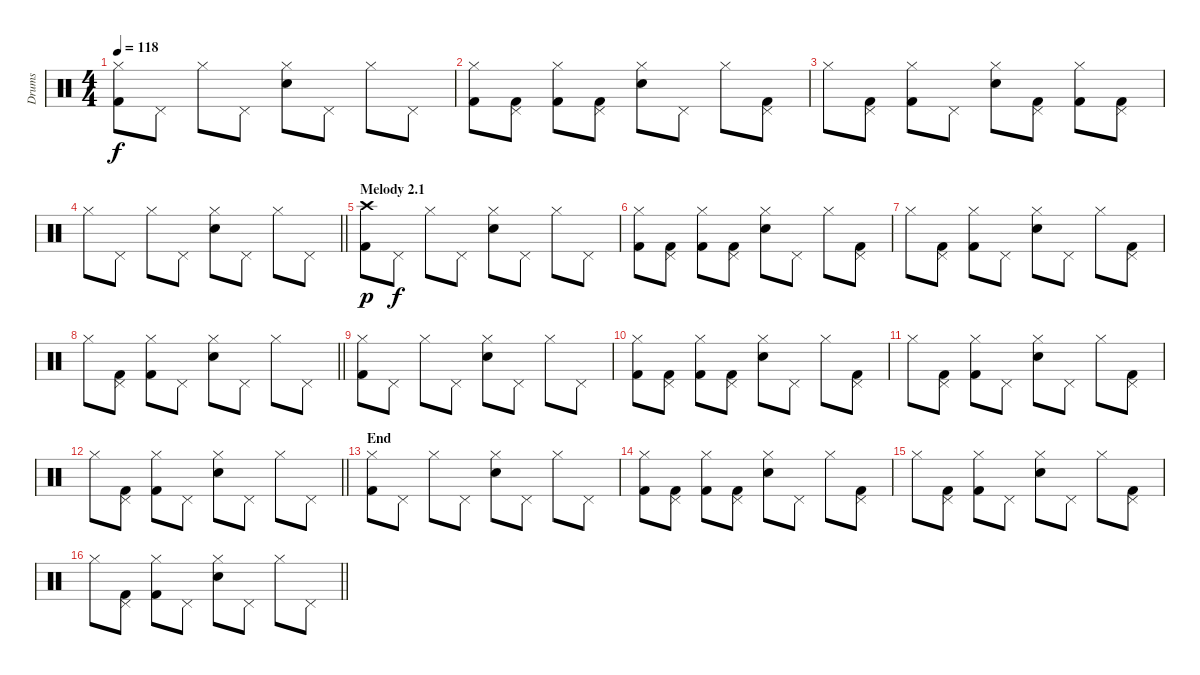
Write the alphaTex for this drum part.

\track ("Drums" "Drums") {instrument percussion}
\staff {score}
\articulation defaults
\ts (4 4)
\tempo 118
\clef neutral
\ks c
("Hi-Hat (closed)" "Kick (hit) 2").8{dy f} "Pedal Hi-Hat (hit)".8 "Hi-Hat (closed)".8 "Pedal Hi-Hat (hit)".8 ("Hi-Hat (closed)" "Electric Snare (hit)").8 "Pedal Hi-Hat (hit)".8 "Hi-Hat (closed)".8 "Pedal Hi-Hat (hit)".8 |
("Hi-Hat (closed)" "Kick (hit) 2").8 ("Pedal Hi-Hat (hit)" "Kick (hit) 2").8 ("Hi-Hat (closed)" "Kick (hit) 2").8 ("Pedal Hi-Hat (hit)" "Kick (hit) 2").8 ("Hi-Hat (closed)" "Electric Snare (hit)").8 "Pedal Hi-Hat (hit)".8 "Hi-Hat (closed)".8 ("Pedal Hi-Hat (hit)" "Kick (hit) 2").8 |
"Hi-Hat (closed)".8 ("Pedal Hi-Hat (hit)" "Kick (hit) 2").8 ("Hi-Hat (closed)" "Kick (hit) 2").8 "Pedal Hi-Hat (hit)".8 ("Hi-Hat (closed)" "Electric Snare (hit)").8 ("Pedal Hi-Hat (hit)" "Kick (hit) 2").8 ("Hi-Hat (closed)" "Kick (hit) 2").8 ("Pedal Hi-Hat (hit)" "Kick (hit) 2").8 |
\barLineRight lightlight "Hi-Hat (closed)".8 "Pedal Hi-Hat (hit)".8 "Hi-Hat (closed)".8 "Pedal Hi-Hat (hit)".8
("Hi-Hat (closed)" "Electric Snare (hit)").8 "Pedal Hi-Hat (hit)".8 "Hi-Hat (closed)".8 "Pedal Hi-Hat (hit)".8 |
\section ("" "Melody 2.1")
("Crash high (hit)" "Kick (hit) 2").8{dy p} "Pedal Hi-Hat (hit)".8{dy f} "Hi-Hat (closed)".8 "Pedal Hi-Hat (hit)".8 ("Hi-Hat (closed)" "Electric Snare (hit)").8 "Pedal Hi-Hat (hit)".8 "Hi-Hat (closed)".8 "Pedal Hi-Hat (hit)".8 |
("Hi-Hat (closed)" "Kick (hit) 2").8 ("Pedal Hi-Hat (hit)" "Kick (hit) 2").8 ("Hi-Hat (closed)" "Kick (hit) 2").8 ("Pedal Hi-Hat (hit)" "Kick (hit) 2").8 ("Hi-Hat (closed)" "Electric Snare (hit)").8 "Pedal Hi-Hat (hit)".8 "Hi-Hat (closed)".8 ("Pedal Hi-Hat (hit)" "Kick (hit) 2").8 |
"Hi-Hat (closed)".8 ("Pedal Hi-Hat (hit)" "Kick (hit) 2").8 ("Hi-Hat (closed)" "Kick (hit) 2").8 "Pedal Hi-Hat (hit)".8 ("Hi-Hat (closed)" "Electric Snare (hit)").8 "Pedal Hi-Hat (hit)".8 "Hi-Hat (closed)".8 ("Pedal Hi-Hat (hit)" "Kick (hit) 2").8 |
\barLineRight lightlight "Hi-Hat (closed)".8
("Pedal Hi-Hat (hit)" "Kick (hit) 2").8 ("Hi-Hat (closed)" "Kick (hit) 2").8 "Pedal Hi-Hat (hit)".8 ("Hi-Hat (closed)" "Electric Snare (hit)").8 "Pedal Hi-Hat (hit)".8 "Hi-Hat (closed)".8 "Pedal Hi-Hat (hit)".8 |
("Hi-Hat (closed)" "Kick (hit) 2").8 "Pedal Hi-Hat (hit)".8 "Hi-Hat (closed)".8 "Pedal Hi-Hat (hit)".8 ("Hi-Hat (closed)" "Electric Snare (hit)").8 "Pedal Hi-Hat (hit)".8 "Hi-Hat (closed)".8 "Pedal Hi-Hat (hit)".8 |
("Hi-Hat (closed)" "Kick (hit) 2").8 ("Pedal Hi-Hat (hit)" "Kick (hit) 2").8 ("Hi-Hat (closed)" "Kick (hit) 2").8 ("Pedal Hi-Hat (hit)" "Kick (hit) 2").8 ("Hi-Hat (closed)" "Electric Snare (hit)").8 "Pedal Hi-Hat (hit)".8 "Hi-Hat (closed)".8 ("Pedal Hi-Hat (hit)" "Kick (hit) 2").8 |
"Hi-Hat (closed)".8 ("Pedal Hi-Hat (hit)" "Kick (hit) 2").8 ("Hi-Hat (closed)" "Kick (hit) 2").8 "Pedal Hi-Hat (hit)".8 ("Hi-Hat (closed)" "Electric Snare (hit)").8 "Pedal Hi-Hat (hit)".8 "Hi-Hat (closed)".8 ("Pedal Hi-Hat (hit)" "Kick (hit) 2").8 |
\barLineRight lightlight "Hi-Hat (closed)".8
("Pedal Hi-Hat (hit)" "Kick (hit) 2").8 ("Hi-Hat (closed)" "Kick (hit) 2").8 "Pedal Hi-Hat (hit)".8 ("Hi-Hat (closed)" "Electric Snare (hit)").8 "Pedal Hi-Hat (hit)".8 "Hi-Hat (closed)".8 "Pedal Hi-Hat (hit)".8 |
\section ("" "End")
("Hi-Hat (closed)" "Kick (hit) 2").8{volume 7} "Pedal Hi-Hat (hit)".8 "Hi-Hat (closed)".8 "Pedal Hi-Hat (hit)".8 ("Hi-Hat (closed)" "Electric Snare (hit)").8 "Pedal Hi-Hat (hit)".8 "Hi-Hat (closed)".8 "Pedal Hi-Hat (hit)".8 |
("Hi-Hat (closed)" "Kick (hit) 2").8 ("Pedal Hi-Hat (hit)" "Kick (hit) 2").8 ("Hi-Hat (closed)" "Kick (hit) 2").8 ("Pedal Hi-Hat (hit)" "Kick (hit) 2").8 ("Hi-Hat (closed)" "Electric Snare (hit)").8 "Pedal Hi-Hat (hit)".8 "Hi-Hat (closed)".8 ("Pedal Hi-Hat (hit)" "Kick (hit) 2").8 |
"Hi-Hat (closed)".8 ("Pedal Hi-Hat (hit)" "Kick (hit) 2").8 ("Hi-Hat (closed)" "Kick (hit) 2").8 "Pedal Hi-Hat (hit)".8 ("Hi-Hat (closed)" "Electric Snare (hit)").8 "Pedal Hi-Hat (hit)".8 "Hi-Hat (closed)".8 ("Pedal Hi-Hat (hit)" "Kick (hit) 2").8 |
\barLineRight lightlight "Hi-Hat (closed)".8
("Pedal Hi-Hat (hit)" "Kick (hit) 2").8 ("Hi-Hat (closed)" "Kick (hit) 2").8 "Pedal Hi-Hat (hit)".8 ("Hi-Hat (closed)" "Electric Snare (hit)").8 "Pedal Hi-Hat (hit)".8 "Hi-Hat (closed)".8 "Pedal Hi-Hat (hit)".8
